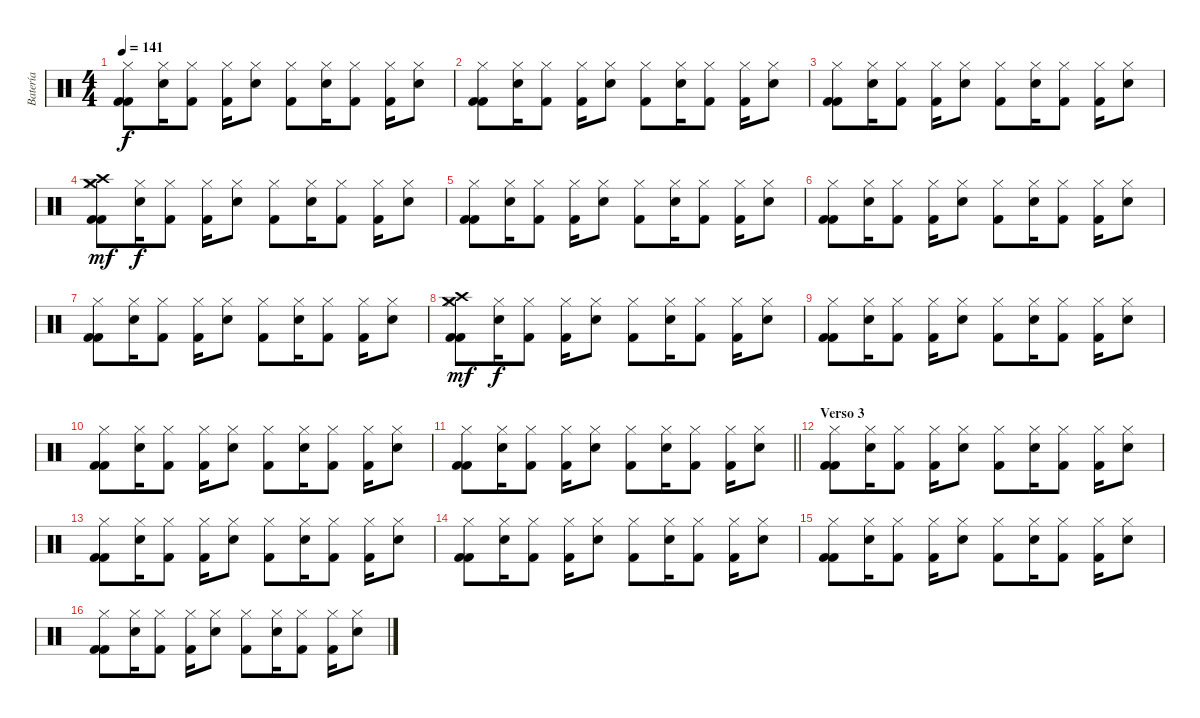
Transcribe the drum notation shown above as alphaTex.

\track ("Batería" "Batería") {instrument percussion}
\staff {score}
\articulation defaults
\ts (4 4)
\tempo 141
\clef neutral
\ks c
("Hi-Hat (closed)" "Kick (hit) 2" "Kick (hit) 2").8{dy f} ("Hi-Hat (closed)" "Electric Snare (hit)").16 ("Hi-Hat (closed)" "Kick (hit) 2").8 ("Hi-Hat (closed)" "Kick (hit) 2").16 ("Hi-Hat (closed)" "Electric Snare (hit)").8 ("Hi-Hat (closed)" "Kick (hit) 2").8 ("Hi-Hat (closed)" "Electric Snare (hit)").16 ("Hi-Hat (closed)" "Kick (hit) 2").8 ("Hi-Hat (closed)" "Kick (hit) 2").16 ("Hi-Hat (closed)" "Electric Snare (hit)").8 |
("Hi-Hat (closed)" "Kick (hit) 2" "Kick (hit) 2").8 ("Hi-Hat (closed)" "Electric Snare (hit)").16 ("Hi-Hat (closed)" "Kick (hit) 2").8 ("Hi-Hat (closed)" "Kick (hit) 2").16 ("Hi-Hat (closed)" "Electric Snare (hit)").8 ("Hi-Hat (closed)" "Kick (hit) 2").8 ("Hi-Hat (closed)" "Electric Snare (hit)").16 ("Hi-Hat (closed)" "Kick (hit) 2").8 ("Hi-Hat (closed)" "Kick (hit) 2").16 ("Hi-Hat (closed)" "Electric Snare (hit)").8 |
("Hi-Hat (closed)" "Kick (hit) 2" "Kick (hit) 2").8 ("Hi-Hat (closed)" "Electric Snare (hit)").16 ("Hi-Hat (closed)" "Kick (hit) 2").8 ("Hi-Hat (closed)" "Kick (hit) 2").16 ("Hi-Hat (closed)" "Electric Snare (hit)").8 ("Hi-Hat (closed)" "Kick (hit) 2").8 ("Hi-Hat (closed)" "Electric Snare (hit)").16 ("Hi-Hat (closed)" "Kick (hit) 2").8 ("Hi-Hat (closed)" "Kick (hit) 2").16 ("Hi-Hat (closed)" "Electric Snare (hit)").8 |
("Crash medium (hit)" "Crash high (hit)" "Hi-Hat (closed)" "Kick (hit) 2" "Kick (hit) 2").8{dy mf} ("Hi-Hat (closed)" "Electric Snare (hit)").16{dy f} ("Hi-Hat (closed)" "Kick (hit) 2").8 ("Hi-Hat (closed)" "Kick (hit) 2").16 ("Hi-Hat (closed)" "Electric Snare (hit)").8 ("Hi-Hat (closed)" "Kick (hit) 2").8 ("Hi-Hat (closed)" "Electric Snare (hit)").16 ("Hi-Hat (closed)" "Kick (hit) 2").8 ("Hi-Hat (closed)" "Kick (hit) 2").16 ("Hi-Hat (closed)" "Electric Snare (hit)").8 |
("Hi-Hat (closed)" "Kick (hit) 2" "Kick (hit) 2").8 ("Hi-Hat (closed)" "Electric Snare (hit)").16 ("Hi-Hat (closed)" "Kick (hit) 2").8 ("Hi-Hat (closed)" "Kick (hit) 2").16 ("Hi-Hat (closed)" "Electric Snare (hit)").8 ("Hi-Hat (closed)" "Kick (hit) 2").8 ("Hi-Hat (closed)" "Electric Snare (hit)").16 ("Hi-Hat (closed)" "Kick (hit) 2").8 ("Hi-Hat (closed)" "Kick (hit) 2").16 ("Hi-Hat (closed)" "Electric Snare (hit)").8 |
("Hi-Hat (closed)" "Kick (hit) 2" "Kick (hit) 2").8 ("Hi-Hat (closed)" "Electric Snare (hit)").16 ("Hi-Hat (closed)" "Kick (hit) 2").8 ("Hi-Hat (closed)" "Kick (hit) 2").16 ("Hi-Hat (closed)" "Electric Snare (hit)").8 ("Hi-Hat (closed)" "Kick (hit) 2").8 ("Hi-Hat (closed)" "Electric Snare (hit)").16 ("Hi-Hat (closed)" "Kick (hit) 2").8 ("Hi-Hat (closed)" "Kick (hit) 2").16 ("Hi-Hat (closed)" "Electric Snare (hit)").8 |
("Hi-Hat (closed)" "Kick (hit) 2" "Kick (hit) 2").8 ("Hi-Hat (closed)" "Electric Snare (hit)").16 ("Hi-Hat (closed)" "Kick (hit) 2").8 ("Hi-Hat (closed)" "Kick (hit) 2").16 ("Hi-Hat (closed)" "Electric Snare (hit)").8 ("Hi-Hat (closed)" "Kick (hit) 2").8 ("Hi-Hat (closed)" "Electric Snare (hit)").16 ("Hi-Hat (closed)" "Kick (hit) 2").8 ("Hi-Hat (closed)" "Kick (hit) 2").16 ("Hi-Hat (closed)" "Electric Snare (hit)").8 |
("Crash medium (hit)" "Crash high (hit)" "Hi-Hat (closed)" "Kick (hit) 2" "Kick (hit) 2").8{dy mf} ("Hi-Hat (closed)" "Electric Snare (hit)").16{dy f} ("Hi-Hat (closed)" "Kick (hit) 2").8 ("Hi-Hat (closed)" "Kick (hit) 2").16 ("Hi-Hat (closed)" "Electric Snare (hit)").8 ("Hi-Hat (closed)" "Kick (hit) 2").8 ("Hi-Hat (closed)" "Electric Snare (hit)").16 ("Hi-Hat (closed)" "Kick (hit) 2").8 ("Hi-Hat (closed)" "Kick (hit) 2").16 ("Hi-Hat (closed)" "Electric Snare (hit)").8 |
("Hi-Hat (closed)" "Kick (hit) 2" "Kick (hit) 2").8 ("Hi-Hat (closed)" "Electric Snare (hit)").16 ("Hi-Hat (closed)" "Kick (hit) 2").8 ("Hi-Hat (closed)" "Kick (hit) 2").16 ("Hi-Hat (closed)" "Electric Snare (hit)").8 ("Hi-Hat (closed)" "Kick (hit) 2").8 ("Hi-Hat (closed)" "Electric Snare (hit)").16 ("Hi-Hat (closed)" "Kick (hit) 2").8 ("Hi-Hat (closed)" "Kick (hit) 2").16 ("Hi-Hat (closed)" "Electric Snare (hit)").8 |
("Hi-Hat (closed)" "Kick (hit) 2" "Kick (hit) 2").8 ("Hi-Hat (closed)" "Electric Snare (hit)").16 ("Hi-Hat (closed)" "Kick (hit) 2").8 ("Hi-Hat (closed)" "Kick (hit) 2").16 ("Hi-Hat (closed)" "Electric Snare (hit)").8 ("Hi-Hat (closed)" "Kick (hit) 2").8 ("Hi-Hat (closed)" "Electric Snare (hit)").16 ("Hi-Hat (closed)" "Kick (hit) 2").8 ("Hi-Hat (closed)" "Kick (hit) 2").16 ("Hi-Hat (closed)" "Electric Snare (hit)").8 |
\barLineRight lightlight
("Hi-Hat (closed)" "Kick (hit) 2" "Kick (hit) 2").8 ("Hi-Hat (closed)" "Electric Snare (hit)").16 ("Hi-Hat (closed)" "Kick (hit) 2").8 ("Hi-Hat (closed)" "Kick (hit) 2").16 ("Hi-Hat (closed)" "Electric Snare (hit)").8 ("Hi-Hat (closed)" "Kick (hit) 2").8 ("Hi-Hat (closed)" "Electric Snare (hit)").16 ("Hi-Hat (closed)" "Kick (hit) 2").8 ("Hi-Hat (closed)" "Kick (hit) 2").16 ("Hi-Hat (closed)" "Electric Snare (hit)").8 |
\section ("" "Verso 3")
("Hi-Hat (closed)" "Kick (hit) 2" "Kick (hit) 2").8 ("Hi-Hat (closed)" "Electric Snare (hit)").16 ("Hi-Hat (closed)" "Kick (hit) 2").8 ("Hi-Hat (closed)" "Kick (hit) 2").16 ("Hi-Hat (closed)" "Electric Snare (hit)").8 ("Hi-Hat (closed)" "Kick (hit) 2").8 ("Hi-Hat (closed)" "Electric Snare (hit)").16 ("Hi-Hat (closed)" "Kick (hit) 2").8 ("Hi-Hat (closed)" "Kick (hit) 2").16 ("Hi-Hat (closed)" "Electric Snare (hit)").8 |
("Hi-Hat (closed)" "Kick (hit) 2" "Kick (hit) 2").8 ("Hi-Hat (closed)" "Electric Snare (hit)").16 ("Hi-Hat (closed)" "Kick (hit) 2").8 ("Hi-Hat (closed)" "Kick (hit) 2").16 ("Hi-Hat (closed)" "Electric Snare (hit)").8 ("Hi-Hat (closed)" "Kick (hit) 2").8 ("Hi-Hat (closed)" "Electric Snare (hit)").16 ("Hi-Hat (closed)" "Kick (hit) 2").8 ("Hi-Hat (closed)" "Kick (hit) 2").16 ("Hi-Hat (closed)" "Electric Snare (hit)").8 |
("Hi-Hat (closed)" "Kick (hit) 2" "Kick (hit) 2").8 ("Hi-Hat (closed)" "Electric Snare (hit)").16 ("Hi-Hat (closed)" "Kick (hit) 2").8 ("Hi-Hat (closed)" "Kick (hit) 2").16 ("Hi-Hat (closed)" "Electric Snare (hit)").8 ("Hi-Hat (closed)" "Kick (hit) 2").8 ("Hi-Hat (closed)" "Electric Snare (hit)").16 ("Hi-Hat (closed)" "Kick (hit) 2").8 ("Hi-Hat (closed)" "Kick (hit) 2").16 ("Hi-Hat (closed)" "Electric Snare (hit)").8 |
("Hi-Hat (closed)" "Kick (hit) 2" "Kick (hit) 2").8 ("Hi-Hat (closed)" "Electric Snare (hit)").16 ("Hi-Hat (closed)" "Kick (hit) 2").8 ("Hi-Hat (closed)" "Kick (hit) 2").16 ("Hi-Hat (closed)" "Electric Snare (hit)").8 ("Hi-Hat (closed)" "Kick (hit) 2").8 ("Hi-Hat (closed)" "Electric Snare (hit)").16 ("Hi-Hat (closed)" "Kick (hit) 2").8 ("Hi-Hat (closed)" "Kick (hit) 2").16 ("Hi-Hat (closed)" "Electric Snare (hit)").8 |
("Hi-Hat (closed)" "Kick (hit) 2" "Kick (hit) 2").8 ("Hi-Hat (closed)" "Electric Snare (hit)").16 ("Hi-Hat (closed)" "Kick (hit) 2").8 ("Hi-Hat (closed)" "Kick (hit) 2").16 ("Hi-Hat (closed)" "Electric Snare (hit)").8 ("Hi-Hat (closed)" "Kick (hit) 2").8 ("Hi-Hat (closed)" "Electric Snare (hit)").16 ("Hi-Hat (closed)" "Kick (hit) 2").8 ("Hi-Hat (closed)" "Kick (hit) 2").16 ("Hi-Hat (closed)" "Electric Snare (hit)").8
